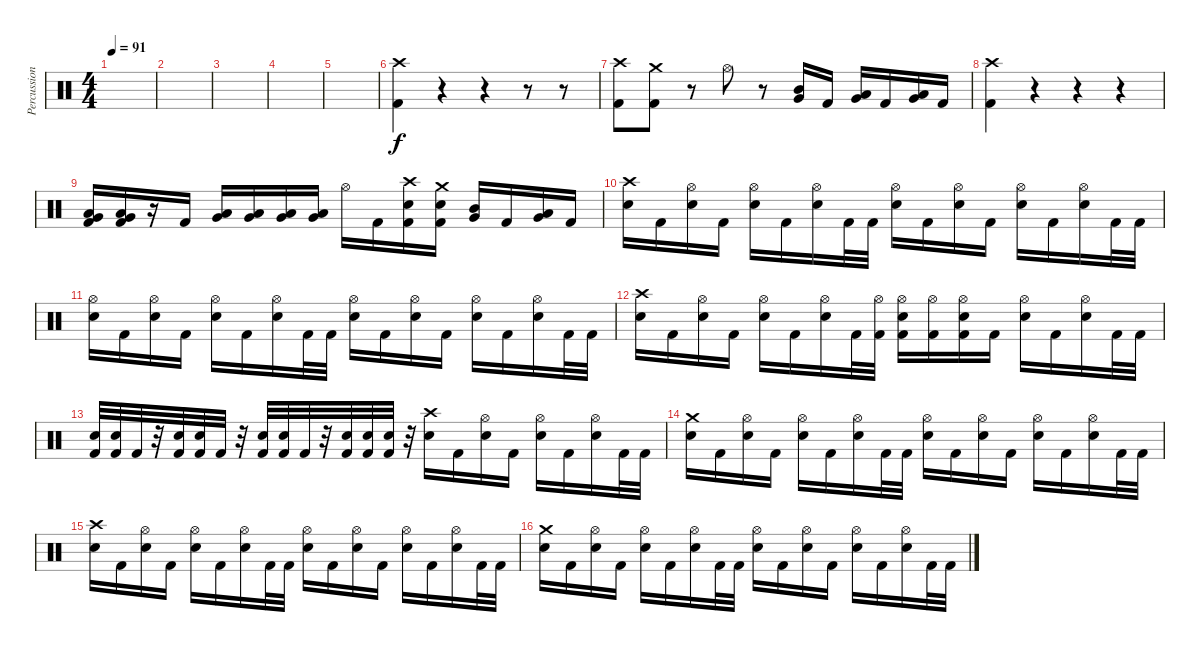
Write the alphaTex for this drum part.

\track ("Percussion" "Percussion") {instrument percussion}
\staff {score}
\articulation defaults
\ts (4 4)
\tempo 91
\clef neutral
\ks c
|
|
|
|
|
("Crash high (hit)" "Kick (hit) 2").4 r.4 r.4 r.8 r.8 |
("Crash high (hit)" "Kick (hit) 2").8 ("Crash medium (hit)" "Kick (hit) 2").8 r.8 "Hi-Hat (open)".8 r.8 ("Mid Tom (hit)" "Very Low Tom (hit)").16 "Kick (hit) 2".16 ("Low Tom (hit)" "Very Low Tom (hit)").16 "Kick (hit) 2".16 ("Very Low Tom (hit)" "Low Floor Tom (hit)").16 "Kick (hit) 2".16 |
("Crash high (hit)" "Kick (hit) 2").4 r.4 r.4 r.4 |
("Low Floor Tom (hit)" "Very Low Tom (hit)" "Kick (hit) 2").16 ("Low Floor Tom (hit)" "Very Low Tom (hit)" "Kick (hit) 2").16 r.16 "Kick (hit) 2".16 ("Low Floor Tom (hit)" "Very Low Tom (hit)").16 ("Low Floor Tom (hit)" "Very Low Tom (hit)").16 ("Low Floor Tom (hit)" "Very Low Tom (hit)").16 ("Low Floor Tom (hit)" "Very Low Tom (hit)").16 "Hi-Hat (open)".16 "Kick (hit) 2".16 ("Crash high (hit)" "Snare (hit) 2" "Kick (hit) 2").16 ("Crash medium (hit)" "Snare (hit) 2" "Kick (hit) 2").16 ("Mid Tom (hit)" "Very Low Tom (hit)").16 "Kick (hit) 2".16 ("Low Tom (hit)" "Very Low Tom (hit)").16 "Kick (hit) 2".16 |
("Crash high (hit)" "Electric Snare (hit)").16 "Kick (hit) 2".16 ("Hi-Hat (open)" "Electric Snare (hit)").16 "Kick (hit) 2".16 ("Hi-Hat (open)" "Electric Snare (hit)").16 "Kick (hit) 2".16 ("Hi-Hat (open)" "Electric Snare (hit)").16 "Kick (hit) 2".32 "Kick (hit) 2".32 ("Hi-Hat (open)" "Electric Snare (hit)").16 "Kick (hit) 2".16 ("Hi-Hat (open)" "Electric Snare (hit)").16 "Kick (hit) 2".16 ("Hi-Hat (open)" "Electric Snare (hit)").16 "Kick (hit) 2".16 ("Hi-Hat (open)" "Electric Snare (hit)").16 "Kick (hit) 2".32 "Kick (hit) 2".32 |
("Hi-Hat (open)" "Electric Snare (hit)").16 "Kick (hit) 2".16 ("Hi-Hat (open)" "Electric Snare (hit)").16 "Kick (hit) 2".16 ("Hi-Hat (open)" "Electric Snare (hit)").16 "Kick (hit) 2".16 ("Hi-Hat (open)" "Electric Snare (hit)").16 "Kick (hit) 2".32 "Kick (hit) 2".32 ("Hi-Hat (open)" "Electric Snare (hit)").16 "Kick (hit) 2".16 ("Hi-Hat (open)" "Electric Snare (hit)").16 "Kick (hit) 2".16 ("Hi-Hat (open)" "Electric Snare (hit)").16 "Kick (hit) 2".16 ("Hi-Hat (open)" "Electric Snare (hit)").16 "Kick (hit) 2".32 "Kick (hit) 2".32 |
("Crash high (hit)" "Electric Snare (hit)").16 "Kick (hit) 2".16 ("Hi-Hat (open)" "Electric Snare (hit)").16 "Kick (hit) 2".16 ("Hi-Hat (open)" "Electric Snare (hit)").16 "Kick (hit) 2".16 ("Hi-Hat (open)" "Electric Snare (hit)").16 "Kick (hit) 2".32 ("Hi-Hat (open)" "Kick (hit) 2").32 ("Hi-Hat (open)" "Electric Snare (hit)" "Kick (hit) 2").16 ("Hi-Hat (open)" "Kick (hit) 2").16 ("Hi-Hat (open)" "Electric Snare (hit)" "Kick (hit) 2").16 "Kick (hit) 2".16 ("Hi-Hat (open)" "Electric Snare (hit)").16 "Kick (hit) 2".16 ("Hi-Hat (open)" "Electric Snare (hit)").16 "Kick (hit) 2".32 "Kick (hit) 2".32 |
("Snare (hit) 2" "Kick (hit) 2").32 ("Snare (hit) 2" "Kick (hit) 2").32 "Kick (hit) 2".32 r.32 ("Snare (hit) 2" "Kick (hit) 2").32 ("Snare (hit) 2" "Kick (hit) 2").32 "Kick (hit) 2".32 r.32 ("Snare (hit) 2" "Kick (hit) 2").32 ("Snare (hit) 2" "Kick (hit) 2").32 "Kick (hit) 2".32 r.32 ("Snare (hit) 2" "Kick (hit) 2").32 ("Snare (hit) 2" "Kick (hit) 2").32 ("Snare (hit) 2" "Kick (hit) 2").32 r.32 ("Crash high (hit)" "Electric Snare (hit)").16 "Kick (hit) 2".16 ("Hi-Hat (open)" "Electric Snare (hit)").16 "Kick (hit) 2".16 ("Hi-Hat (open)" "Electric Snare (hit)").16 "Kick (hit) 2".16 ("Hi-Hat (open)" "Electric Snare (hit)").16 "Kick (hit) 2".32 "Kick (hit) 2".32 |
("Crash medium (hit)" "Electric Snare (hit)").16 "Kick (hit) 2".16 ("Hi-Hat (open)" "Electric Snare (hit)").16 "Kick (hit) 2".16 ("Hi-Hat (open)" "Electric Snare (hit)").16 "Kick (hit) 2".16 ("Hi-Hat (open)" "Electric Snare (hit)").16 "Kick (hit) 2".32 "Kick (hit) 2".32 ("Hi-Hat (open)" "Electric Snare (hit)").16 "Kick (hit) 2".16 ("Hi-Hat (open)" "Electric Snare (hit)").16 "Kick (hit) 2".16 ("Hi-Hat (open)" "Electric Snare (hit)").16 "Kick (hit) 2".16 ("Hi-Hat (open)" "Electric Snare (hit)").16 "Kick (hit) 2".32 "Kick (hit) 2".32 |
("Crash high (hit)" "Electric Snare (hit)").16 "Kick (hit) 2".16 ("Hi-Hat (open)" "Electric Snare (hit)").16 "Kick (hit) 2".16 ("Hi-Hat (open)" "Electric Snare (hit)").16 "Kick (hit) 2".16 ("Hi-Hat (open)" "Electric Snare (hit)").16 "Kick (hit) 2".32 "Kick (hit) 2".32 ("Hi-Hat (open)" "Electric Snare (hit)").16 "Kick (hit) 2".16 ("Hi-Hat (open)" "Electric Snare (hit)").16 "Kick (hit) 2".16 ("Hi-Hat (open)" "Electric Snare (hit)").16 "Kick (hit) 2".16 ("Hi-Hat (open)" "Electric Snare (hit)").16 "Kick (hit) 2".32 "Kick (hit) 2".32 |
("Crash medium (hit)" "Electric Snare (hit)").16 "Kick (hit) 2".16 ("Hi-Hat (open)" "Electric Snare (hit)").16 "Kick (hit) 2".16 ("Hi-Hat (open)" "Electric Snare (hit)").16 "Kick (hit) 2".16 ("Hi-Hat (open)" "Electric Snare (hit)").16 "Kick (hit) 2".32 "Kick (hit) 2".32 ("Hi-Hat (open)" "Electric Snare (hit)").16 "Kick (hit) 2".16 ("Hi-Hat (open)" "Electric Snare (hit)").16 "Kick (hit) 2".16 ("Hi-Hat (open)" "Electric Snare (hit)").16 "Kick (hit) 2".16 ("Hi-Hat (open)" "Electric Snare (hit)").16 "Kick (hit) 2".32 "Kick (hit) 2".32
